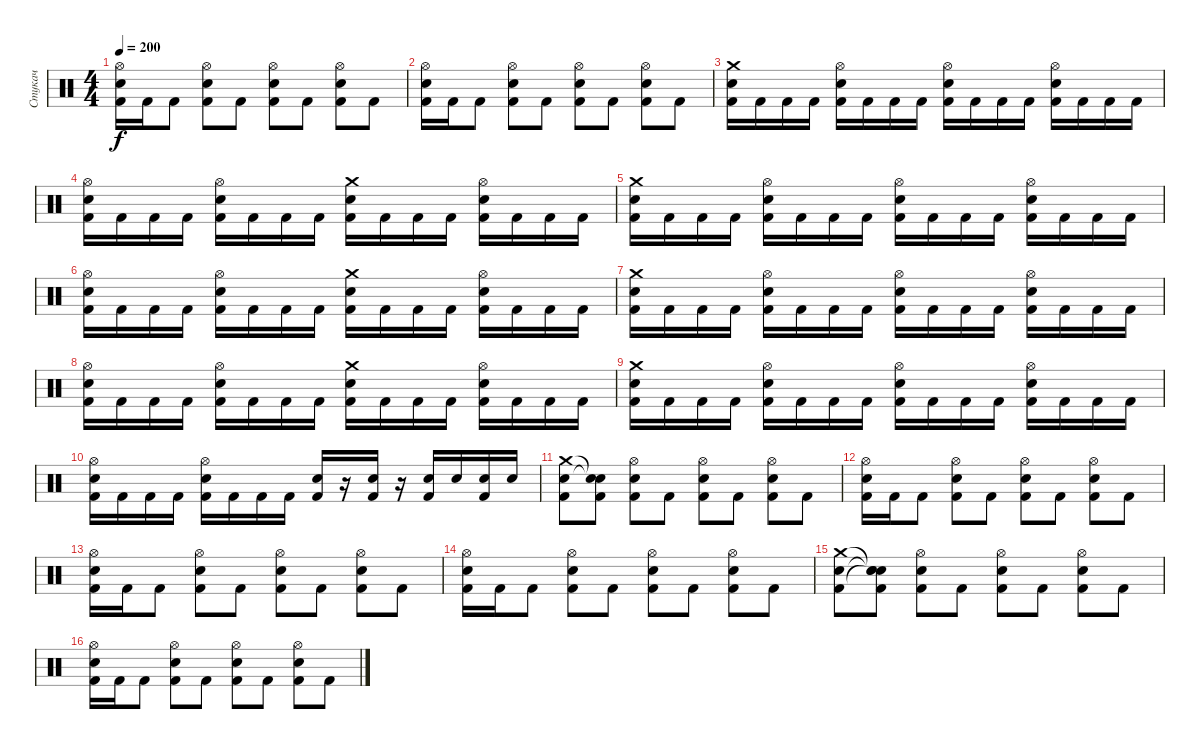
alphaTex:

\track ("Стукач" "Стукач") {instrument percussion}
\staff {score}
\articulation defaults
\ts (4 4)
\tempo 200
\clef neutral
\ks c
("Hi-Hat (open)" "Electric Snare (hit)" "Kick (hit) 2").16{dy f} "Kick (hit) 2".16 "Kick (hit) 2".8 ("Hi-Hat (open)" "Electric Snare (hit)" "Kick (hit) 2").8 "Kick (hit) 2".8 ("Hi-Hat (open)" "Electric Snare (hit)" "Kick (hit) 2").8 "Kick (hit) 2".8 ("Hi-Hat (open)" "Electric Snare (hit)" "Kick (hit) 2").8 "Kick (hit) 2".8 |
("Hi-Hat (open)" "Electric Snare (hit)" "Kick (hit) 2").16 "Kick (hit) 2".16 "Kick (hit) 2".8 ("Hi-Hat (open)" "Electric Snare (hit)" "Kick (hit) 2").8 "Kick (hit) 2".8 ("Hi-Hat (open)" "Electric Snare (hit)" "Kick (hit) 2").8 "Kick (hit) 2".8 ("Hi-Hat (open)" "Electric Snare (hit)" "Kick (hit) 2").8 "Kick (hit) 2".8 |
("Crash medium (hit)" "Electric Snare (hit)" "Kick (hit) 2").16 "Kick (hit) 2".16 "Kick (hit) 2".16 "Kick (hit) 2".16 ("Hi-Hat (open)" "Electric Snare (hit)" "Kick (hit) 2").16 "Kick (hit) 2".16 "Kick (hit) 2".16 "Kick (hit) 2".16 ("Hi-Hat (open)" "Electric Snare (hit)" "Kick (hit) 2").16 "Kick (hit) 2".16 "Kick (hit) 2".16 "Kick (hit) 2".16 ("Hi-Hat (open)" "Electric Snare (hit)" "Kick (hit) 2").16 "Kick (hit) 2".16 "Kick (hit) 2".16 "Kick (hit) 2".16 |
("Hi-Hat (open)" "Electric Snare (hit)" "Kick (hit) 2").16 "Kick (hit) 2".16 "Kick (hit) 2".16 "Kick (hit) 2".16 ("Hi-Hat (open)" "Electric Snare (hit)" "Kick (hit) 2").16 "Kick (hit) 2".16 "Kick (hit) 2".16 "Kick (hit) 2".16 ("Crash medium (hit)" "Electric Snare (hit)" "Kick (hit) 2").16 "Kick (hit) 2".16 "Kick (hit) 2".16 "Kick (hit) 2".16 ("Hi-Hat (open)" "Electric Snare (hit)" "Kick (hit) 2").16 "Kick (hit) 2".16 "Kick (hit) 2".16 "Kick (hit) 2".16 |
("Crash medium (hit)" "Electric Snare (hit)" "Kick (hit) 2").16 "Kick (hit) 2".16 "Kick (hit) 2".16 "Kick (hit) 2".16 ("Hi-Hat (open)" "Electric Snare (hit)" "Kick (hit) 2").16 "Kick (hit) 2".16 "Kick (hit) 2".16 "Kick (hit) 2".16 ("Hi-Hat (open)" "Electric Snare (hit)" "Kick (hit) 2").16 "Kick (hit) 2".16 "Kick (hit) 2".16 "Kick (hit) 2".16 ("Hi-Hat (open)" "Electric Snare (hit)" "Kick (hit) 2").16 "Kick (hit) 2".16 "Kick (hit) 2".16 "Kick (hit) 2".16 |
("Hi-Hat (open)" "Electric Snare (hit)" "Kick (hit) 2").16 "Kick (hit) 2".16 "Kick (hit) 2".16 "Kick (hit) 2".16 ("Hi-Hat (open)" "Electric Snare (hit)" "Kick (hit) 2").16 "Kick (hit) 2".16 "Kick (hit) 2".16 "Kick (hit) 2".16 ("Crash medium (hit)" "Electric Snare (hit)" "Kick (hit) 2").16 "Kick (hit) 2".16 "Kick (hit) 2".16 "Kick (hit) 2".16 ("Hi-Hat (open)" "Electric Snare (hit)" "Kick (hit) 2").16 "Kick (hit) 2".16 "Kick (hit) 2".16 "Kick (hit) 2".16 |
("Crash medium (hit)" "Electric Snare (hit)" "Kick (hit) 2").16 "Kick (hit) 2".16 "Kick (hit) 2".16 "Kick (hit) 2".16 ("Hi-Hat (open)" "Electric Snare (hit)" "Kick (hit) 2").16 "Kick (hit) 2".16 "Kick (hit) 2".16 "Kick (hit) 2".16 ("Hi-Hat (open)" "Electric Snare (hit)" "Kick (hit) 2").16 "Kick (hit) 2".16 "Kick (hit) 2".16 "Kick (hit) 2".16 ("Hi-Hat (open)" "Electric Snare (hit)" "Kick (hit) 2").16 "Kick (hit) 2".16 "Kick (hit) 2".16 "Kick (hit) 2".16 |
("Hi-Hat (open)" "Electric Snare (hit)" "Kick (hit) 2").16 "Kick (hit) 2".16 "Kick (hit) 2".16 "Kick (hit) 2".16 ("Hi-Hat (open)" "Electric Snare (hit)" "Kick (hit) 2").16 "Kick (hit) 2".16 "Kick (hit) 2".16 "Kick (hit) 2".16 ("Crash medium (hit)" "Electric Snare (hit)" "Kick (hit) 2").16 "Kick (hit) 2".16 "Kick (hit) 2".16 "Kick (hit) 2".16 ("Hi-Hat (open)" "Electric Snare (hit)" "Kick (hit) 2").16 "Kick (hit) 2".16 "Kick (hit) 2".16 "Kick (hit) 2".16 |
("Crash medium (hit)" "Electric Snare (hit)" "Kick (hit) 2").16 "Kick (hit) 2".16 "Kick (hit) 2".16 "Kick (hit) 2".16 ("Hi-Hat (open)" "Electric Snare (hit)" "Kick (hit) 2").16 "Kick (hit) 2".16 "Kick (hit) 2".16 "Kick (hit) 2".16 ("Hi-Hat (open)" "Electric Snare (hit)" "Kick (hit) 2").16 "Kick (hit) 2".16 "Kick (hit) 2".16 "Kick (hit) 2".16 ("Hi-Hat (open)" "Electric Snare (hit)" "Kick (hit) 2").16 "Kick (hit) 2".16 "Kick (hit) 2".16 "Kick (hit) 2".16 |
("Hi-Hat (open)" "Electric Snare (hit)" "Kick (hit) 2").16 "Kick (hit) 2".16 "Kick (hit) 2".16 "Kick (hit) 2".16 ("Hi-Hat (open)" "Electric Snare (hit)" "Kick (hit) 2").16 "Kick (hit) 2".16 "Kick (hit) 2".16 "Kick (hit) 2".16 ("Electric Snare (hit)" "Kick (hit) 2").16 r.16 ("Electric Snare (hit)" "Kick (hit) 2").16 r.16 ("Electric Snare (hit)" "Kick (hit) 2").16 "Electric Snare (hit)".16 ("Electric Snare (hit)" "Kick (hit) 2").16 "Electric Snare (hit)".16 |
("Crash medium (hit)" "Electric Snare (hit)" "Kick (hit) 2").8 ("Snare (hit)"{t} "Snare (hit)"{t} "Kick (hit) 2").8 ("Hi-Hat (open)" "Electric Snare (hit)" "Kick (hit) 2").8 "Kick (hit) 2".8 ("Hi-Hat (open)" "Electric Snare (hit)" "Kick (hit) 2").8 "Kick (hit) 2".8 ("Hi-Hat (open)" "Electric Snare (hit)" "Kick (hit) 2").8 "Kick (hit) 2".8 |
("Hi-Hat (open)" "Electric Snare (hit)" "Kick (hit) 2").16 "Kick (hit) 2".16 "Kick (hit) 2".8 ("Hi-Hat (open)" "Electric Snare (hit)" "Kick (hit) 2").8 "Kick (hit) 2".8 ("Hi-Hat (open)" "Electric Snare (hit)" "Kick (hit) 2").8 "Kick (hit) 2".8 ("Hi-Hat (open)" "Electric Snare (hit)" "Kick (hit) 2").8 "Kick (hit) 2".8 |
("Hi-Hat (open)" "Electric Snare (hit)" "Kick (hit) 2").16 "Kick (hit) 2".16 "Kick (hit) 2".8 ("Hi-Hat (open)" "Electric Snare (hit)" "Kick (hit) 2").8 "Kick (hit) 2".8 ("Hi-Hat (open)" "Electric Snare (hit)" "Kick (hit) 2").8 "Kick (hit) 2".8 ("Hi-Hat (open)" "Electric Snare (hit)" "Kick (hit) 2").8 "Kick (hit) 2".8 |
("Hi-Hat (open)" "Electric Snare (hit)" "Kick (hit) 2").16 "Kick (hit) 2".16 "Kick (hit) 2".8 ("Hi-Hat (open)" "Electric Snare (hit)" "Kick (hit) 2").8 "Kick (hit) 2".8 ("Hi-Hat (open)" "Electric Snare (hit)" "Kick (hit) 2").8 "Kick (hit) 2".8 ("Hi-Hat (open)" "Electric Snare (hit)" "Kick (hit) 2").8 "Kick (hit) 2".8 |
("Crash medium (hit)" "Electric Snare (hit)" "Kick (hit) 2").8 ("Snare (hit)"{t} "Snare (hit)"{t} "Snare (hit)"{t} "Kick (hit) 2").8 ("Hi-Hat (open)" "Electric Snare (hit)" "Kick (hit) 2").8 "Kick (hit) 2".8 ("Hi-Hat (open)" "Electric Snare (hit)" "Kick (hit) 2").8 "Kick (hit) 2".8 ("Hi-Hat (open)" "Electric Snare (hit)" "Kick (hit) 2").8 "Kick (hit) 2".8 |
("Hi-Hat (open)" "Electric Snare (hit)" "Kick (hit) 2").16 "Kick (hit) 2".16 "Kick (hit) 2".8 ("Hi-Hat (open)" "Electric Snare (hit)" "Kick (hit) 2").8 "Kick (hit) 2".8 ("Hi-Hat (open)" "Electric Snare (hit)" "Kick (hit) 2").8 "Kick (hit) 2".8 ("Hi-Hat (open)" "Electric Snare (hit)" "Kick (hit) 2").8 "Kick (hit) 2".8
